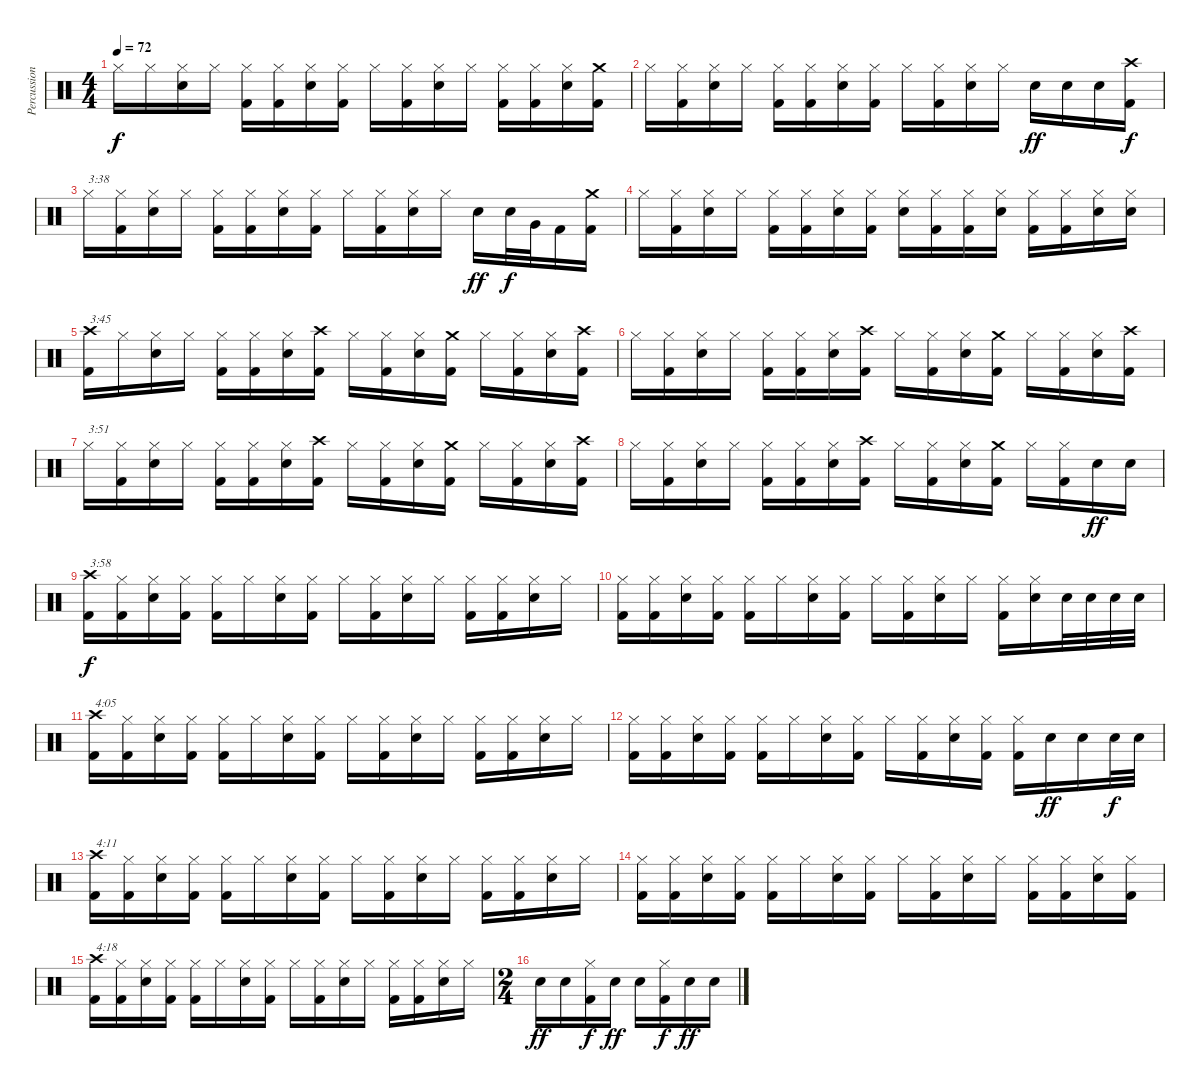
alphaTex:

\track ("Percussion" "Percussion") {instrument percussion}
\staff {score}
\articulation defaults
\ts (4 4)
\tempo 72
\clef neutral
\ks c "Hi-Hat (closed)".16{dy f} "Hi-Hat (closed)".16
("Hi-Hat (closed)" "Snare (hit) 2").16 "Hi-Hat (closed)".16 ("Hi-Hat (closed)" "Kick (hit) 2").16 ("Hi-Hat (closed)" "Kick (hit) 2").16 ("Hi-Hat (closed)" "Snare (hit) 2").16 ("Hi-Hat (closed)" "Kick (hit) 2").16 "Hi-Hat (closed)".16 ("Hi-Hat (closed)" "Kick (hit) 2").16 ("Hi-Hat (closed)" "Snare (hit) 2").16 "Hi-Hat (closed)".16 ("Hi-Hat (closed)" "Kick (hit) 2").16 ("Hi-Hat (closed)" "Kick (hit) 2").16 ("Hi-Hat (closed)" "Snare (hit) 2").16 ("Crash medium (hit)" "Kick (hit) 2").16 |
"Hi-Hat (closed)".16 ("Hi-Hat (closed)" "Kick (hit) 2").16 ("Hi-Hat (closed)" "Snare (hit) 2").16 "Hi-Hat (closed)".16 ("Hi-Hat (closed)" "Kick (hit) 2").16 ("Hi-Hat (closed)" "Kick (hit) 2").16 ("Hi-Hat (closed)" "Snare (hit) 2").16 ("Hi-Hat (closed)" "Kick (hit) 2").16 "Hi-Hat (closed)".16 ("Hi-Hat (closed)" "Kick (hit) 2").16 ("Hi-Hat (closed)" "Snare (hit) 2").16 "Hi-Hat (closed)".16 "Snare (hit) 2".16{dy ff} "Snare (hit) 2".16 "Snare (hit) 2".16 ("Crash high (hit)" "Kick (hit) 2").16{dy f} |
"Hi-Hat (closed)".16{txt "3:38"} ("Hi-Hat (closed)" "Kick (hit) 2").16 ("Hi-Hat (closed)" "Snare (hit) 2").16 "Hi-Hat (closed)".16 ("Hi-Hat (closed)" "Kick (hit) 2").16 ("Hi-Hat (closed)" "Kick (hit) 2").16 ("Hi-Hat (closed)" "Snare (hit) 2").16 ("Hi-Hat (closed)" "Kick (hit) 2").16 "Hi-Hat (closed)".16 ("Hi-Hat (closed)" "Kick (hit) 2").16 ("Hi-Hat (closed)" "Snare (hit) 2").16 "Hi-Hat (closed)".16 "Snare (hit) 2".16{dy ff} "Snare (hit) 2".32{dy f} "Very Low Tom (hit)".32 "Kick (hit) 2".16 ("Crash medium (hit)" "Kick (hit) 2").16 |
"Hi-Hat (closed)".16 ("Hi-Hat (closed)" "Kick (hit) 2").16 ("Hi-Hat (closed)" "Snare (hit) 2").16 "Hi-Hat (closed)".16 ("Hi-Hat (closed)" "Kick (hit) 2").16 ("Hi-Hat (closed)" "Kick (hit) 2").16 ("Hi-Hat (closed)" "Snare (hit) 2").16 ("Hi-Hat (closed)" "Kick (hit) 2").16 ("Hi-Hat (closed)" "Snare (hit) 2").16 ("Hi-Hat (closed)" "Kick (hit) 2").16 ("Hi-Hat (closed)" "Kick (hit) 2").16 ("Hi-Hat (closed)" "Snare (hit) 2").16 ("Hi-Hat (closed)" "Kick (hit) 2").16 ("Hi-Hat (closed)" "Kick (hit) 2").16 ("Hi-Hat (closed)" "Snare (hit) 2").16 ("Hi-Hat (closed)" "Snare (hit) 2").16 |
("Crash high (hit)" "Kick (hit) 2").16{txt "3:45"} "Hi-Hat (closed)".16 ("Hi-Hat (closed)" "Snare (hit) 2").16 "Hi-Hat (closed)".16 ("Hi-Hat (closed)" "Kick (hit) 2").16 ("Hi-Hat (closed)" "Kick (hit) 2").16 ("Hi-Hat (closed)" "Snare (hit) 2").16 ("Crash high (hit)" "Kick (hit) 2").16 "Hi-Hat (closed)".16 ("Hi-Hat (closed)" "Kick (hit) 2").16 ("Hi-Hat (closed)" "Snare (hit) 2").16 ("Crash medium (hit)" "Kick (hit) 2").16 "Hi-Hat (closed)".16 ("Hi-Hat (closed)" "Kick (hit) 2").16 ("Hi-Hat (closed)" "Snare (hit) 2").16 ("Crash high (hit)" "Kick (hit) 2").16 |
"Hi-Hat (closed)".16 ("Hi-Hat (closed)" "Kick (hit) 2").16 ("Hi-Hat (closed)" "Snare (hit) 2").16 "Hi-Hat (closed)".16 ("Hi-Hat (closed)" "Kick (hit) 2").16 ("Hi-Hat (closed)" "Kick (hit) 2").16 ("Hi-Hat (closed)" "Snare (hit) 2").16 ("Crash high (hit)" "Kick (hit) 2").16 "Hi-Hat (closed)".16 ("Hi-Hat (closed)" "Kick (hit) 2").16 ("Hi-Hat (closed)" "Snare (hit) 2").16 ("Crash medium (hit)" "Kick (hit) 2").16 "Hi-Hat (closed)".16 ("Hi-Hat (closed)" "Kick (hit) 2").16 ("Hi-Hat (closed)" "Snare (hit) 2").16 ("Crash high (hit)" "Kick (hit) 2").16 |
"Hi-Hat (closed)".16{txt "3:51"} ("Hi-Hat (closed)" "Kick (hit) 2").16 ("Hi-Hat (closed)" "Snare (hit) 2").16 "Hi-Hat (closed)".16 ("Hi-Hat (closed)" "Kick (hit) 2").16 ("Hi-Hat (closed)" "Kick (hit) 2").16 ("Hi-Hat (closed)" "Snare (hit) 2").16 ("Crash high (hit)" "Kick (hit) 2").16 "Hi-Hat (closed)".16 ("Hi-Hat (closed)" "Kick (hit) 2").16 ("Hi-Hat (closed)" "Snare (hit) 2").16 ("Crash medium (hit)" "Kick (hit) 2").16 "Hi-Hat (closed)".16 ("Hi-Hat (closed)" "Kick (hit) 2").16 ("Hi-Hat (closed)" "Snare (hit) 2").16 ("Crash high (hit)" "Kick (hit) 2").16 |
"Hi-Hat (closed)".16 ("Hi-Hat (closed)" "Kick (hit) 2").16 ("Hi-Hat (closed)" "Snare (hit) 2").16 "Hi-Hat (closed)".16 ("Hi-Hat (closed)" "Kick (hit) 2").16 ("Hi-Hat (closed)" "Kick (hit) 2").16 ("Hi-Hat (closed)" "Snare (hit) 2").16 ("Crash high (hit)" "Kick (hit) 2").16 "Hi-Hat (closed)".16 ("Hi-Hat (closed)" "Kick (hit) 2").16 ("Hi-Hat (closed)" "Snare (hit) 2").16 ("Crash medium (hit)" "Kick (hit) 2").16 "Hi-Hat (closed)".16 ("Hi-Hat (closed)" "Kick (hit) 2").16 "Snare (hit) 2".16{dy ff} "Snare (hit) 2".16 |
("Crash high (hit)" "Kick (hit) 2").16{txt "3:58" dy f} ("Hi-Hat (closed)" "Kick (hit) 2").16 ("Hi-Hat (closed)" "Snare (hit) 2").16 ("Hi-Hat (closed)" "Kick (hit) 2").16 ("Hi-Hat (closed)" "Kick (hit) 2").16 "Hi-Hat (closed)".16 ("Hi-Hat (closed)" "Snare (hit) 2").16 ("Hi-Hat (closed)" "Kick (hit) 2").16 "Hi-Hat (closed)".16 ("Hi-Hat (closed)" "Kick (hit) 2").16 ("Hi-Hat (closed)" "Snare (hit) 2").16 "Hi-Hat (closed)".16 ("Hi-Hat (closed)" "Kick (hit) 2").16 ("Hi-Hat (closed)" "Kick (hit) 2").16 ("Hi-Hat (closed)" "Snare (hit) 2").16 "Hi-Hat (closed)".16 |
("Hi-Hat (closed)" "Kick (hit) 2").16 ("Hi-Hat (closed)" "Kick (hit) 2").16 ("Hi-Hat (closed)" "Snare (hit) 2").16 ("Hi-Hat (closed)" "Kick (hit) 2").16 ("Hi-Hat (closed)" "Kick (hit) 2").16 "Hi-Hat (closed)".16 ("Hi-Hat (closed)" "Snare (hit) 2").16 ("Hi-Hat (closed)" "Kick (hit) 2").16 "Hi-Hat (closed)".16 ("Hi-Hat (closed)" "Kick (hit) 2").16 ("Hi-Hat (closed)" "Snare (hit) 2").16 "Hi-Hat (closed)".16 ("Hi-Hat (closed)" "Kick (hit) 2").16 ("Hi-Hat (closed)" "Snare (hit) 2").16 "Snare (hit) 2".32 "Snare (hit) 2".32 "Snare (hit) 2".32 "Snare (hit) 2".32 |
("Crash high (hit)" "Kick (hit) 2").16{txt "4:05"} ("Hi-Hat (closed)" "Kick (hit) 2").16 ("Hi-Hat (closed)" "Snare (hit) 2").16 ("Hi-Hat (closed)" "Kick (hit) 2").16 ("Hi-Hat (closed)" "Kick (hit) 2").16 "Hi-Hat (closed)".16 ("Hi-Hat (closed)" "Snare (hit) 2").16 ("Hi-Hat (closed)" "Kick (hit) 2").16 "Hi-Hat (closed)".16 ("Hi-Hat (closed)" "Kick (hit) 2").16 ("Hi-Hat (closed)" "Snare (hit) 2").16 "Hi-Hat (closed)".16 ("Hi-Hat (closed)" "Kick (hit) 2").16 ("Hi-Hat (closed)" "Kick (hit) 2").16 ("Hi-Hat (closed)" "Snare (hit) 2").16 "Hi-Hat (closed)".16 |
("Hi-Hat (closed)" "Kick (hit) 2").16 ("Hi-Hat (closed)" "Kick (hit) 2").16 ("Hi-Hat (closed)" "Snare (hit) 2").16 ("Hi-Hat (closed)" "Kick (hit) 2").16 ("Hi-Hat (closed)" "Kick (hit) 2").16 "Hi-Hat (closed)".16 ("Hi-Hat (closed)" "Snare (hit) 2").16 ("Hi-Hat (closed)" "Kick (hit) 2").16 "Hi-Hat (closed)".16 ("Hi-Hat (closed)" "Kick (hit) 2").16 ("Hi-Hat (closed)" "Snare (hit) 2").16 ("Hi-Hat (closed)" "Kick (hit) 2").16 ("Hi-Hat (closed)" "Kick (hit) 2").16 "Snare (hit) 2".16{dy ff} "Snare (hit) 2".16 "Snare (hit) 2".32{dy f} "Snare (hit) 2".32 |
("Crash high (hit)" "Kick (hit) 2").16{txt "4:11"} ("Hi-Hat (closed)" "Kick (hit) 2").16 ("Hi-Hat (closed)" "Snare (hit) 2").16 ("Hi-Hat (closed)" "Kick (hit) 2").16 ("Hi-Hat (closed)" "Kick (hit) 2").16 "Hi-Hat (closed)".16 ("Hi-Hat (closed)" "Snare (hit) 2").16 ("Hi-Hat (closed)" "Kick (hit) 2").16 "Hi-Hat (closed)".16 ("Hi-Hat (closed)" "Kick (hit) 2").16 ("Hi-Hat (closed)" "Snare (hit) 2").16 "Hi-Hat (closed)".16 ("Hi-Hat (closed)" "Kick (hit) 2").16 ("Hi-Hat (closed)" "Kick (hit) 2").16 ("Hi-Hat (closed)" "Snare (hit) 2").16 "Hi-Hat (closed)".16 |
("Hi-Hat (closed)" "Kick (hit) 2").16 ("Hi-Hat (closed)" "Kick (hit) 2").16 ("Hi-Hat (closed)" "Snare (hit) 2").16 ("Hi-Hat (closed)" "Kick (hit) 2").16 ("Hi-Hat (closed)" "Kick (hit) 2").16 "Hi-Hat (closed)".16 ("Hi-Hat (closed)" "Snare (hit) 2").16 ("Hi-Hat (closed)" "Kick (hit) 2").16 "Hi-Hat (closed)".16 ("Hi-Hat (closed)" "Kick (hit) 2").16 ("Hi-Hat (closed)" "Snare (hit) 2").16 "Hi-Hat (closed)".16 ("Hi-Hat (closed)" "Kick (hit) 2").16 ("Hi-Hat (closed)" "Kick (hit) 2").16 ("Hi-Hat (closed)" "Snare (hit) 2").16 ("Hi-Hat (closed)" "Kick (hit) 2").16 |
("Crash high (hit)" "Kick (hit) 2").16{txt "4:18"} ("Hi-Hat (closed)" "Kick (hit) 2").16 ("Hi-Hat (closed)" "Snare (hit) 2").16 ("Hi-Hat (closed)" "Kick (hit) 2").16 ("Hi-Hat (closed)" "Kick (hit) 2").16 "Hi-Hat (closed)".16 ("Hi-Hat (closed)" "Snare (hit) 2").16 ("Hi-Hat (closed)" "Kick (hit) 2").16 "Hi-Hat (closed)".16 ("Hi-Hat (closed)" "Kick (hit) 2").16 ("Hi-Hat (closed)" "Snare (hit) 2").16 "Hi-Hat (closed)".16 ("Hi-Hat (closed)" "Kick (hit) 2").16 ("Hi-Hat (closed)" "Kick (hit) 2").16 ("Hi-Hat (closed)" "Snare (hit) 2").16 "Hi-Hat (closed)".16 |
\ts (2 4)
"Snare (hit) 2".16{dy ff} "Snare (hit) 2".16 ("Hi-Hat (closed)" "Kick (hit) 2").16{dy f} "Snare (hit) 2".16{dy ff} "Snare (hit) 2".16 ("Hi-Hat (closed)" "Kick (hit) 2").16{dy f} "Snare (hit) 2".16{dy ff} "Snare (hit) 2".16
